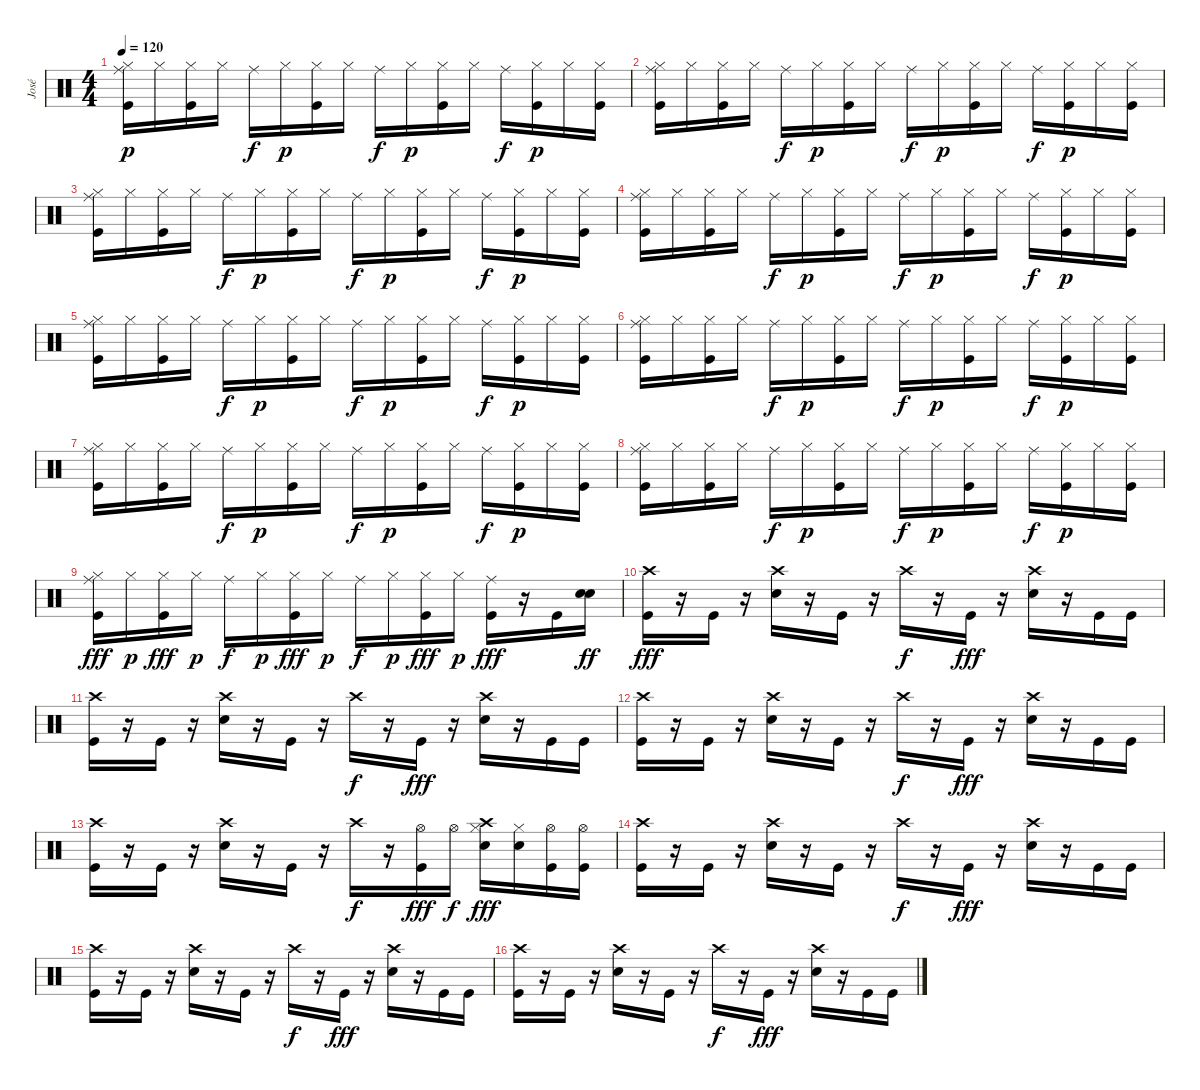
\track ("José" "José") {instrument percussion}
\staff {score}
\articulation defaults
\ts (4 4)
\tempo 120
\clef neutral
\ks c
("Ride (middle)" "Hi-Hat (closed)" "Kick (hit)").16{dy p} "Hi-Hat (closed)".16 ("Hi-Hat (closed)" "Kick (hit)").16 "Hi-Hat (closed)".16 "Ride (middle)".16{dy f} "Hi-Hat (closed)".16{dy p} ("Hi-Hat (closed)" "Kick (hit)").16 "Hi-Hat (closed)".16 "Ride (middle)".16{dy f} "Hi-Hat (closed)".16{dy p} ("Hi-Hat (closed)" "Kick (hit)").16 "Hi-Hat (closed)".16 "Ride (middle)".16{dy f} ("Hi-Hat (closed)" "Kick (hit)").16{dy p} "Hi-Hat (closed)".16 ("Hi-Hat (closed)" "Kick (hit)").16 |
("Ride (middle)" "Hi-Hat (closed)" "Kick (hit)").16 "Hi-Hat (closed)".16 ("Hi-Hat (closed)" "Kick (hit)").16 "Hi-Hat (closed)".16 "Ride (middle)".16{dy f} "Hi-Hat (closed)".16{dy p} ("Hi-Hat (closed)" "Kick (hit)").16 "Hi-Hat (closed)".16 "Ride (middle)".16{dy f} "Hi-Hat (closed)".16{dy p} ("Hi-Hat (closed)" "Kick (hit)").16 "Hi-Hat (closed)".16 "Ride (middle)".16{dy f} ("Hi-Hat (closed)" "Kick (hit)").16{dy p} "Hi-Hat (closed)".16 ("Hi-Hat (closed)" "Kick (hit)").16 |
("Ride (middle)" "Hi-Hat (closed)" "Kick (hit)").16 "Hi-Hat (closed)".16 ("Hi-Hat (closed)" "Kick (hit)").16 "Hi-Hat (closed)".16 "Ride (middle)".16{dy f} "Hi-Hat (closed)".16{dy p} ("Hi-Hat (closed)" "Kick (hit)").16 "Hi-Hat (closed)".16 "Ride (middle)".16{dy f} "Hi-Hat (closed)".16{dy p} ("Hi-Hat (closed)" "Kick (hit)").16 "Hi-Hat (closed)".16 "Ride (middle)".16{dy f} ("Hi-Hat (closed)" "Kick (hit)").16{dy p} "Hi-Hat (closed)".16 ("Hi-Hat (closed)" "Kick (hit)").16 |
("Ride (middle)" "Hi-Hat (closed)" "Kick (hit)").16 "Hi-Hat (closed)".16 ("Hi-Hat (closed)" "Kick (hit)").16 "Hi-Hat (closed)".16 "Ride (middle)".16{dy f} "Hi-Hat (closed)".16{dy p} ("Hi-Hat (closed)" "Kick (hit)").16 "Hi-Hat (closed)".16 "Ride (middle)".16{dy f} "Hi-Hat (closed)".16{dy p} ("Hi-Hat (closed)" "Kick (hit)").16 "Hi-Hat (closed)".16 "Ride (middle)".16{dy f} ("Hi-Hat (closed)" "Kick (hit)").16{dy p} "Hi-Hat (closed)".16 ("Hi-Hat (closed)" "Kick (hit)").16 |
("Ride (middle)" "Hi-Hat (closed)" "Kick (hit)").16 "Hi-Hat (closed)".16 ("Hi-Hat (closed)" "Kick (hit)").16 "Hi-Hat (closed)".16 "Ride (middle)".16{dy f} "Hi-Hat (closed)".16{dy p} ("Hi-Hat (closed)" "Kick (hit)").16 "Hi-Hat (closed)".16 "Ride (middle)".16{dy f} "Hi-Hat (closed)".16{dy p} ("Hi-Hat (closed)" "Kick (hit)").16 "Hi-Hat (closed)".16 "Ride (middle)".16{dy f} ("Hi-Hat (closed)" "Kick (hit)").16{dy p} "Hi-Hat (closed)".16 ("Hi-Hat (closed)" "Kick (hit)").16 |
("Ride (middle)" "Hi-Hat (closed)" "Kick (hit)").16 "Hi-Hat (closed)".16 ("Hi-Hat (closed)" "Kick (hit)").16 "Hi-Hat (closed)".16 "Ride (middle)".16{dy f} "Hi-Hat (closed)".16{dy p} ("Hi-Hat (closed)" "Kick (hit)").16 "Hi-Hat (closed)".16 "Ride (middle)".16{dy f} "Hi-Hat (closed)".16{dy p} ("Hi-Hat (closed)" "Kick (hit)").16 "Hi-Hat (closed)".16 "Ride (middle)".16{dy f} ("Hi-Hat (closed)" "Kick (hit)").16{dy p} "Hi-Hat (closed)".16 ("Hi-Hat (closed)" "Kick (hit)").16 |
("Ride (middle)" "Hi-Hat (closed)" "Kick (hit)").16 "Hi-Hat (closed)".16 ("Hi-Hat (closed)" "Kick (hit)").16 "Hi-Hat (closed)".16 "Ride (middle)".16{dy f} "Hi-Hat (closed)".16{dy p} ("Hi-Hat (closed)" "Kick (hit)").16 "Hi-Hat (closed)".16 "Ride (middle)".16{dy f} "Hi-Hat (closed)".16{dy p} ("Hi-Hat (closed)" "Kick (hit)").16 "Hi-Hat (closed)".16 "Ride (middle)".16{dy f} ("Hi-Hat (closed)" "Kick (hit)").16{dy p} "Hi-Hat (closed)".16 ("Hi-Hat (closed)" "Kick (hit)").16 |
("Ride (middle)" "Hi-Hat (closed)" "Kick (hit)").16 "Hi-Hat (closed)".16 ("Hi-Hat (closed)" "Kick (hit)").16 "Hi-Hat (closed)".16 "Ride (middle)".16{dy f} "Hi-Hat (closed)".16{dy p} ("Hi-Hat (closed)" "Kick (hit)").16 "Hi-Hat (closed)".16 "Ride (middle)".16{dy f} "Hi-Hat (closed)".16{dy p} ("Hi-Hat (closed)" "Kick (hit)").16 "Hi-Hat (closed)".16 "Ride (middle)".16{dy f} ("Hi-Hat (closed)" "Kick (hit)").16{dy p} "Hi-Hat (closed)".16 ("Hi-Hat (closed)" "Kick (hit)").16 |
("Ride (middle)" "Hi-Hat (closed)" "Kick (hit)").16{dy fff} "Hi-Hat (closed)".16{dy p} ("Hi-Hat (closed)" "Kick (hit)").16{dy fff} "Hi-Hat (closed)".16{dy p} "Ride (middle)".16{dy f} "Hi-Hat (closed)".16{dy p} ("Hi-Hat (closed)" "Kick (hit)").16{dy fff} "Hi-Hat (closed)".16{dy p} "Ride (middle)".16{dy f} "Hi-Hat (closed)".16{dy p} ("Hi-Hat (closed)" "Kick (hit)").16{dy fff} "Hi-Hat (closed)".16{dy p} ("Ride (middle)" "Kick (hit)").16{dy fff} r.16 "Kick (hit)".16 ("Electric Snare (hit)" "Electric Snare (hit)").16{dy ff} |
("Crash high (hit)" "Kick (hit)").16{dy fff} r.16 "Kick (hit)".16 r.16 ("Crash high (hit)" "Electric Snare (hit)").16 r.16 "Kick (hit)".16 r.16 "Crash high (hit)".16{dy f} r.16 "Kick (hit)".16{dy fff} r.16 ("Crash high (hit)" "Electric Snare (hit)").16 r.16 "Kick (hit)".16 "Kick (hit)".16 |
("Crash high (hit)" "Kick (hit)").16 r.16 "Kick (hit)".16 r.16 ("Crash high (hit)" "Electric Snare (hit)").16 r.16 "Kick (hit)".16 r.16 "Crash high (hit)".16{dy f} r.16 "Kick (hit)".16{dy fff} r.16 ("Crash high (hit)" "Electric Snare (hit)").16 r.16 "Kick (hit)".16 "Kick (hit)".16 |
("Crash high (hit)" "Kick (hit)").16 r.16 "Kick (hit)".16 r.16 ("Crash high (hit)" "Electric Snare (hit)").16 r.16 "Kick (hit)".16 r.16 "Crash high (hit)".16{dy f} r.16 "Kick (hit)".16{dy fff} r.16 ("Crash high (hit)" "Electric Snare (hit)").16 r.16 "Kick (hit)".16 "Kick (hit)".16 |
("Crash high (hit)" "Kick (hit)").16 r.16 "Kick (hit)".16 r.16 ("Crash high (hit)" "Electric Snare (hit)").16 r.16 "Kick (hit)".16 r.16 "Crash high (hit)".16{dy f} r.16 ("Hi-Hat (open)" "Kick (hit)").16{dy fff} "Hi-Hat (open)".16{dy f} ("Crash high (hit)" "Hi-Hat (closed)" "Electric Snare (hit)").16{dy fff} ("Hi-Hat (closed)" "Electric Snare (hit)").16 ("Hi-Hat (open)" "Kick (hit)").16 ("Hi-Hat (open)" "Kick (hit)").16 |
("Crash high (hit)" "Kick (hit)").16 r.16 "Kick (hit)".16 r.16 ("Crash high (hit)" "Electric Snare (hit)").16 r.16 "Kick (hit)".16 r.16 "Crash high (hit)".16{dy f} r.16 "Kick (hit)".16{dy fff} r.16 ("Crash high (hit)" "Electric Snare (hit)").16 r.16 "Kick (hit)".16 "Kick (hit)".16 |
("Crash high (hit)" "Kick (hit)").16 r.16 "Kick (hit)".16 r.16 ("Crash high (hit)" "Electric Snare (hit)").16 r.16 "Kick (hit)".16 r.16 "Crash high (hit)".16{dy f} r.16 "Kick (hit)".16{dy fff} r.16 ("Crash high (hit)" "Electric Snare (hit)").16 r.16 "Kick (hit)".16 "Kick (hit)".16 |
("Crash high (hit)" "Kick (hit)").16 r.16 "Kick (hit)".16 r.16 ("Crash high (hit)" "Electric Snare (hit)").16 r.16 "Kick (hit)".16 r.16 "Crash high (hit)".16{dy f} r.16 "Kick (hit)".16{dy fff} r.16 ("Crash high (hit)" "Electric Snare (hit)").16 r.16 "Kick (hit)".16 "Kick (hit)".16
